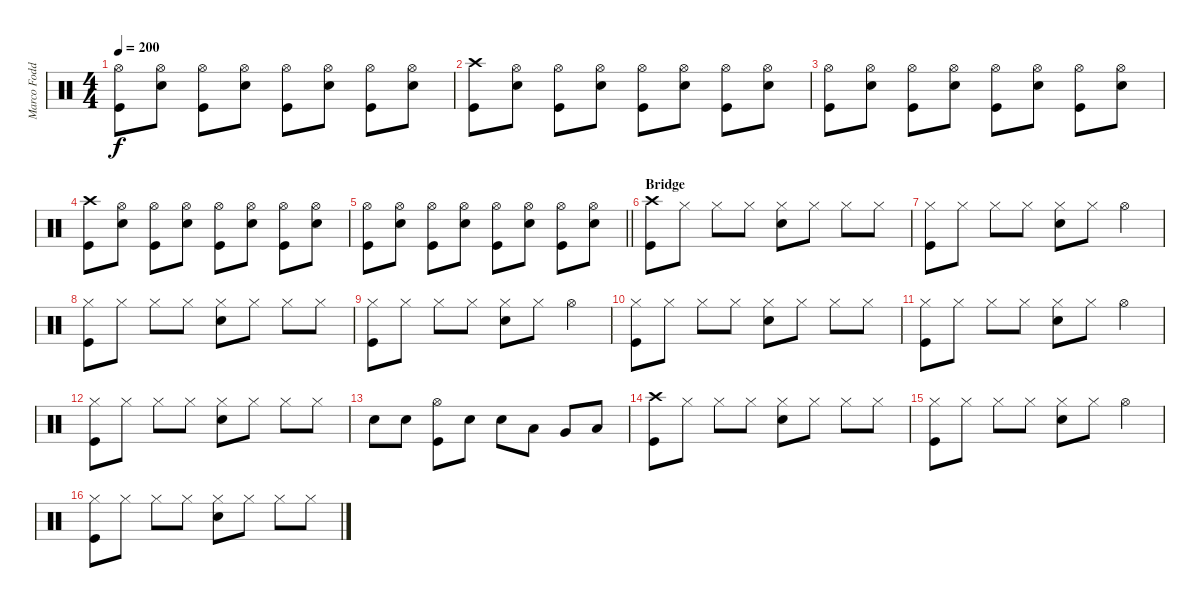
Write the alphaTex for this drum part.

\track ("Marco Foddis" "Marco Fodd") {instrument percussion}
\staff {score}
\articulation defaults
\ts (4 4)
\tempo 200
\clef neutral
\ks c
("Hi-Hat (open)" "Kick (hit)").8{dy f} ("Hi-Hat (open)" "Snare (hit) 2").8 ("Hi-Hat (open)" "Kick (hit)").8 ("Hi-Hat (open)" "Snare (hit) 2").8 ("Hi-Hat (open)" "Kick (hit)").8 ("Hi-Hat (open)" "Snare (hit) 2").8 ("Hi-Hat (open)" "Kick (hit)").8 ("Hi-Hat (open)" "Snare (hit) 2").8 |
("Crash high (hit)" "Kick (hit)").8 ("Hi-Hat (open)" "Snare (hit) 2").8 ("Hi-Hat (open)" "Kick (hit)").8 ("Hi-Hat (open)" "Snare (hit) 2").8 ("Hi-Hat (open)" "Kick (hit)").8 ("Hi-Hat (open)" "Snare (hit) 2").8 ("Hi-Hat (open)" "Kick (hit)").8 ("Hi-Hat (open)" "Snare (hit) 2").8 |
("Hi-Hat (open)" "Kick (hit)").8 ("Hi-Hat (open)" "Snare (hit) 2").8 ("Hi-Hat (open)" "Kick (hit)").8 ("Hi-Hat (open)" "Snare (hit) 2").8 ("Hi-Hat (open)" "Kick (hit)").8 ("Hi-Hat (open)" "Snare (hit) 2").8 ("Hi-Hat (open)" "Kick (hit)").8 ("Hi-Hat (open)" "Snare (hit) 2").8 |
("Crash high (hit)" "Kick (hit)").8 ("Hi-Hat (open)" "Snare (hit) 2").8 ("Hi-Hat (open)" "Kick (hit)").8 ("Hi-Hat (open)" "Snare (hit) 2").8 ("Hi-Hat (open)" "Kick (hit)").8 ("Hi-Hat (open)" "Snare (hit) 2").8 ("Hi-Hat (open)" "Kick (hit)").8 ("Hi-Hat (open)" "Snare (hit) 2").8 |
\barLineRight lightlight
("Hi-Hat (open)" "Kick (hit)").8 ("Hi-Hat (open)" "Snare (hit) 2").8 ("Hi-Hat (open)" "Kick (hit)").8 ("Hi-Hat (open)" "Snare (hit) 2").8 ("Hi-Hat (open)" "Kick (hit)").8 ("Hi-Hat (open)" "Snare (hit) 2").8 ("Hi-Hat (open)" "Kick (hit)").8 ("Hi-Hat (open)" "Snare (hit) 2").8 |
\section ("" "Bridge")
("Crash high (hit)" "Kick (hit)").8 "Hi-Hat (closed)".8 "Hi-Hat (closed)".8 "Hi-Hat (closed)".8 ("Hi-Hat (closed)" "Snare (hit) 2").8 "Hi-Hat (closed)".8 "Hi-Hat (closed)".8 "Hi-Hat (closed)".8 |
("Hi-Hat (closed)" "Kick (hit)").8 "Hi-Hat (closed)".8 "Hi-Hat (closed)".8 "Hi-Hat (closed)".8 ("Hi-Hat (closed)" "Snare (hit) 2").8 "Hi-Hat (closed)".8 "Hi-Hat (open)".4 |
("Hi-Hat (closed)" "Kick (hit)").8 "Hi-Hat (closed)".8 "Hi-Hat (closed)".8 "Hi-Hat (closed)".8 ("Hi-Hat (closed)" "Snare (hit) 2").8 "Hi-Hat (closed)".8 "Hi-Hat (closed)".8 "Hi-Hat (closed)".8 |
("Hi-Hat (closed)" "Kick (hit)").8 "Hi-Hat (closed)".8 "Hi-Hat (closed)".8 "Hi-Hat (closed)".8 ("Hi-Hat (closed)" "Snare (hit) 2").8 "Hi-Hat (closed)".8 "Hi-Hat (open)".4 |
("Hi-Hat (closed)" "Kick (hit)").8 "Hi-Hat (closed)".8 "Hi-Hat (closed)".8 "Hi-Hat (closed)".8 ("Hi-Hat (closed)" "Snare (hit) 2").8 "Hi-Hat (closed)".8 "Hi-Hat (closed)".8 "Hi-Hat (closed)".8 |
("Hi-Hat (closed)" "Kick (hit)").8 "Hi-Hat (closed)".8 "Hi-Hat (closed)".8 "Hi-Hat (closed)".8 ("Hi-Hat (closed)" "Snare (hit) 2").8 "Hi-Hat (closed)".8 "Hi-Hat (open)".4 |
("Hi-Hat (closed)" "Kick (hit)").8 "Hi-Hat (closed)".8 "Hi-Hat (closed)".8 "Hi-Hat (closed)".8 ("Hi-Hat (closed)" "Snare (hit) 2").8 "Hi-Hat (closed)".8 "Hi-Hat (closed)".8 "Hi-Hat (closed)".8 |
"Snare (hit) 2".8 "Snare (hit) 2".8 ("Hi-Hat (open)" "Kick (hit)").8 "Snare (hit) 2".8 "Snare (hit) 2".8 "Low Tom (hit)".8 "Very Low Tom (hit)".8 "Low Floor Tom (hit)".8 |
("Crash high (hit)" "Kick (hit)").8 "Hi-Hat (closed)".8 "Hi-Hat (closed)".8 "Hi-Hat (closed)".8 ("Hi-Hat (closed)" "Snare (hit) 2").8 "Hi-Hat (closed)".8 "Hi-Hat (closed)".8 "Hi-Hat (closed)".8 |
("Hi-Hat (closed)" "Kick (hit)").8 "Hi-Hat (closed)".8 "Hi-Hat (closed)".8 "Hi-Hat (closed)".8 ("Hi-Hat (closed)" "Snare (hit) 2").8 "Hi-Hat (closed)".8 "Hi-Hat (open)".4 |
("Hi-Hat (closed)" "Kick (hit)").8 "Hi-Hat (closed)".8 "Hi-Hat (closed)".8 "Hi-Hat (closed)".8 ("Hi-Hat (closed)" "Snare (hit) 2").8 "Hi-Hat (closed)".8 "Hi-Hat (closed)".8 "Hi-Hat (closed)".8
